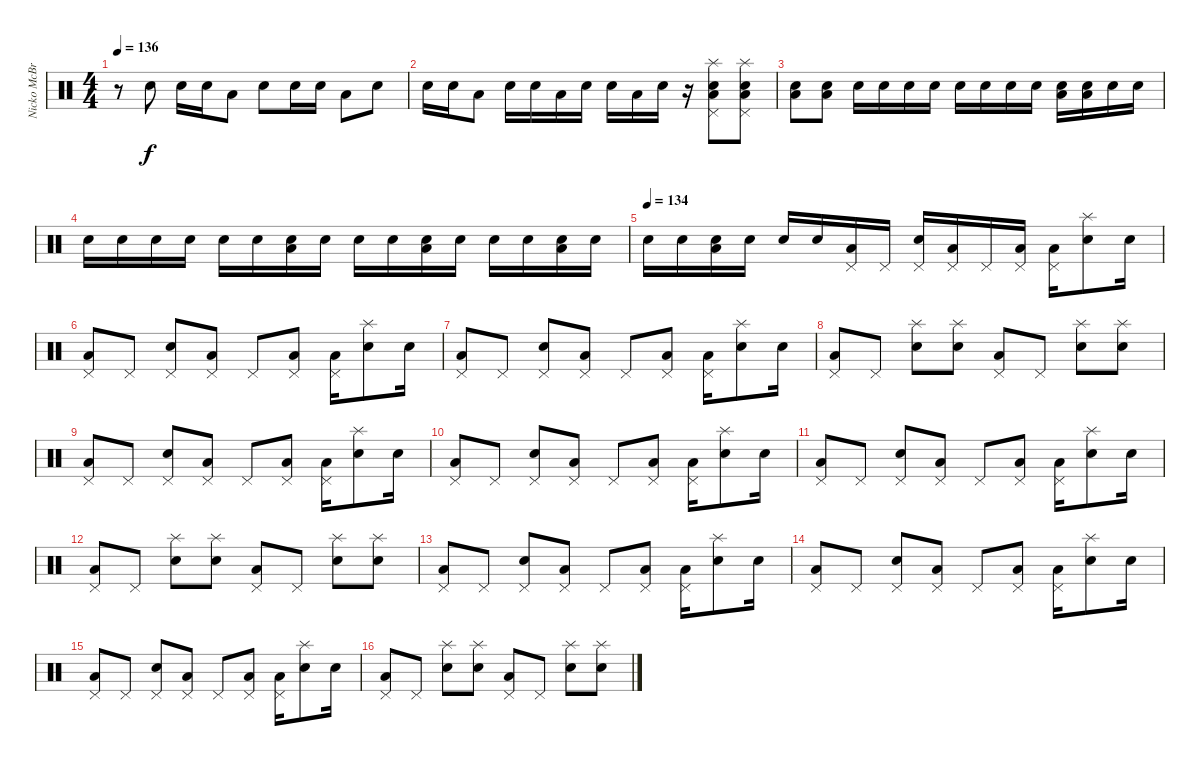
\track ("Nicko McBrian" "Nicko McBr") {instrument percussion}
\staff {score}
\articulation defaults
\ts (4 4)
\tempo 136
\clef neutral
\ks c
r.8{dy f} "Electric Snare (hit)".8 "Electric Snare (hit)".16 "Electric Snare (hit)".16 "Low Floor Tom (hit)".8 "Electric Snare (hit)".8 "Electric Snare (hit)".16 "Electric Snare (hit)".16 "Low Floor Tom (hit)".8 "Electric Snare (hit)".8 |
"Electric Snare (hit)".16 "Electric Snare (hit)".16 "Low Floor Tom (hit)".8 "Electric Snare (hit)".16 "Electric Snare (hit)".16 "Low Floor Tom (hit)".16 "Electric Snare (hit)".16 "Electric Snare (hit)".16 "Low Floor Tom (hit)".16 "Electric Snare (hit)".16 r.16 ("Electric Snare (hit)" "Low Floor Tom (hit)" "Pedal Hi-Hat (hit)" "Splash (hit)").8 ("Electric Snare (hit)" "Low Floor Tom (hit)" "Pedal Hi-Hat (hit)" "Splash (hit)").8 |
("Electric Snare (hit)" "Low Floor Tom (hit)").8 ("Electric Snare (hit)" "Low Floor Tom (hit)").8 "Electric Snare (hit)".16 "Electric Snare (hit)".16 "Electric Snare (hit)".16 "Electric Snare (hit)".16 "Electric Snare (hit)".16 "Electric Snare (hit)".16 "Electric Snare (hit)".16 "Electric Snare (hit)".16 ("Electric Snare (hit)" "Low Floor Tom (hit)").16 ("Electric Snare (hit)" "Low Floor Tom (hit)").16 "Electric Snare (hit)".16 "Electric Snare (hit)".16 |
"Electric Snare (hit)".16 "Electric Snare (hit)".16 "Electric Snare (hit)".16 "Electric Snare (hit)".16 "Electric Snare (hit)".16 "Electric Snare (hit)".16 ("Electric Snare (hit)" "Low Floor Tom (hit)").16 "Electric Snare (hit)".16 "Electric Snare (hit)".16 "Electric Snare (hit)".16 ("Electric Snare (hit)" "Low Floor Tom (hit)").16 "Electric Snare (hit)".16 "Electric Snare (hit)".16 "Electric Snare (hit)".16 ("Electric Snare (hit)" "Low Floor Tom (hit)").16 "Electric Snare (hit)".16 |
\tempo (134)
"Electric Snare (hit)".16 "Electric Snare (hit)".16 ("Electric Snare (hit)" "Low Floor Tom (hit)").16 "Electric Snare (hit)".16 "Electric Snare (hit)".16 "Electric Snare (hit)".16 ("Low Floor Tom (hit)" "Pedal Hi-Hat (hit)").16 "Pedal Hi-Hat (hit)".16 ("Electric Snare (hit)" "Pedal Hi-Hat (hit)").16 ("Low Floor Tom (hit)" "Pedal Hi-Hat (hit)").16 "Pedal Hi-Hat (hit)".16 ("Low Floor Tom (hit)" "Pedal Hi-Hat (hit)").16 ("Low Floor Tom (hit)" "Pedal Hi-Hat (hit)").16 ("Electric Snare (hit)" "Splash (hit)").8 "Electric Snare (hit)".16 |
("Low Floor Tom (hit)" "Pedal Hi-Hat (hit)").8 "Pedal Hi-Hat (hit)".8 ("Electric Snare (hit)" "Pedal Hi-Hat (hit)").8 ("Low Floor Tom (hit)" "Pedal Hi-Hat (hit)").8 "Pedal Hi-Hat (hit)".8 ("Low Floor Tom (hit)" "Pedal Hi-Hat (hit)").8 ("Low Floor Tom (hit)" "Pedal Hi-Hat (hit)").16 ("Electric Snare (hit)" "Splash (hit)").8 "Electric Snare (hit)".16 |
("Low Floor Tom (hit)" "Pedal Hi-Hat (hit)").8 "Pedal Hi-Hat (hit)".8 ("Electric Snare (hit)" "Pedal Hi-Hat (hit)").8 ("Low Floor Tom (hit)" "Pedal Hi-Hat (hit)").8 "Pedal Hi-Hat (hit)".8 ("Low Floor Tom (hit)" "Pedal Hi-Hat (hit)").8 ("Low Floor Tom (hit)" "Pedal Hi-Hat (hit)").16 ("Electric Snare (hit)" "Splash (hit)").8 "Electric Snare (hit)".16 |
("Low Floor Tom (hit)" "Pedal Hi-Hat (hit)").8 "Pedal Hi-Hat (hit)".8 ("Electric Snare (hit)" "Splash (hit)").8 ("Electric Snare (hit)" "Splash (hit)").8 ("Low Floor Tom (hit)" "Pedal Hi-Hat (hit)").8 "Pedal Hi-Hat (hit)".8 ("Electric Snare (hit)" "Splash (hit)").8 ("Electric Snare (hit)" "Splash (hit)").8 |
("Low Floor Tom (hit)" "Pedal Hi-Hat (hit)").8 "Pedal Hi-Hat (hit)".8 ("Electric Snare (hit)" "Pedal Hi-Hat (hit)").8 ("Low Floor Tom (hit)" "Pedal Hi-Hat (hit)").8 "Pedal Hi-Hat (hit)".8 ("Low Floor Tom (hit)" "Pedal Hi-Hat (hit)").8 ("Low Floor Tom (hit)" "Pedal Hi-Hat (hit)").16 ("Electric Snare (hit)" "Splash (hit)").8 "Electric Snare (hit)".16 |
("Low Floor Tom (hit)" "Pedal Hi-Hat (hit)").8 "Pedal Hi-Hat (hit)".8 ("Electric Snare (hit)" "Pedal Hi-Hat (hit)").8 ("Low Floor Tom (hit)" "Pedal Hi-Hat (hit)").8 "Pedal Hi-Hat (hit)".8 ("Low Floor Tom (hit)" "Pedal Hi-Hat (hit)").8 ("Low Floor Tom (hit)" "Pedal Hi-Hat (hit)").16 ("Electric Snare (hit)" "Splash (hit)").8 "Electric Snare (hit)".16 |
("Low Floor Tom (hit)" "Pedal Hi-Hat (hit)").8 "Pedal Hi-Hat (hit)".8 ("Electric Snare (hit)" "Pedal Hi-Hat (hit)").8 ("Low Floor Tom (hit)" "Pedal Hi-Hat (hit)").8 "Pedal Hi-Hat (hit)".8 ("Low Floor Tom (hit)" "Pedal Hi-Hat (hit)").8 ("Low Floor Tom (hit)" "Pedal Hi-Hat (hit)").16 ("Electric Snare (hit)" "Splash (hit)").8 "Electric Snare (hit)".16 |
("Low Floor Tom (hit)" "Pedal Hi-Hat (hit)").8 "Pedal Hi-Hat (hit)".8 ("Electric Snare (hit)" "Splash (hit)").8 ("Electric Snare (hit)" "Splash (hit)").8 ("Low Floor Tom (hit)" "Pedal Hi-Hat (hit)").8 "Pedal Hi-Hat (hit)".8 ("Electric Snare (hit)" "Splash (hit)").8 ("Electric Snare (hit)" "Splash (hit)").8 |
("Low Floor Tom (hit)" "Pedal Hi-Hat (hit)").8 "Pedal Hi-Hat (hit)".8 ("Electric Snare (hit)" "Pedal Hi-Hat (hit)").8 ("Low Floor Tom (hit)" "Pedal Hi-Hat (hit)").8 "Pedal Hi-Hat (hit)".8 ("Low Floor Tom (hit)" "Pedal Hi-Hat (hit)").8 ("Low Floor Tom (hit)" "Pedal Hi-Hat (hit)").16 ("Electric Snare (hit)" "Splash (hit)").8 "Electric Snare (hit)".16 |
("Low Floor Tom (hit)" "Pedal Hi-Hat (hit)").8 "Pedal Hi-Hat (hit)".8 ("Electric Snare (hit)" "Pedal Hi-Hat (hit)").8 ("Low Floor Tom (hit)" "Pedal Hi-Hat (hit)").8 "Pedal Hi-Hat (hit)".8 ("Low Floor Tom (hit)" "Pedal Hi-Hat (hit)").8 ("Low Floor Tom (hit)" "Pedal Hi-Hat (hit)").16 ("Electric Snare (hit)" "Splash (hit)").8 "Electric Snare (hit)".16 |
("Low Floor Tom (hit)" "Pedal Hi-Hat (hit)").8 "Pedal Hi-Hat (hit)".8 ("Electric Snare (hit)" "Pedal Hi-Hat (hit)").8 ("Low Floor Tom (hit)" "Pedal Hi-Hat (hit)").8 "Pedal Hi-Hat (hit)".8 ("Low Floor Tom (hit)" "Pedal Hi-Hat (hit)").8 ("Low Floor Tom (hit)" "Pedal Hi-Hat (hit)").16 ("Electric Snare (hit)" "Splash (hit)").8 "Electric Snare (hit)".16 |
("Low Floor Tom (hit)" "Pedal Hi-Hat (hit)").8 "Pedal Hi-Hat (hit)".8 ("Electric Snare (hit)" "Splash (hit)").8 ("Electric Snare (hit)" "Splash (hit)").8 ("Low Floor Tom (hit)" "Pedal Hi-Hat (hit)").8 "Pedal Hi-Hat (hit)".8 ("Electric Snare (hit)" "Splash (hit)").8 ("Electric Snare (hit)" "Splash (hit)").8
